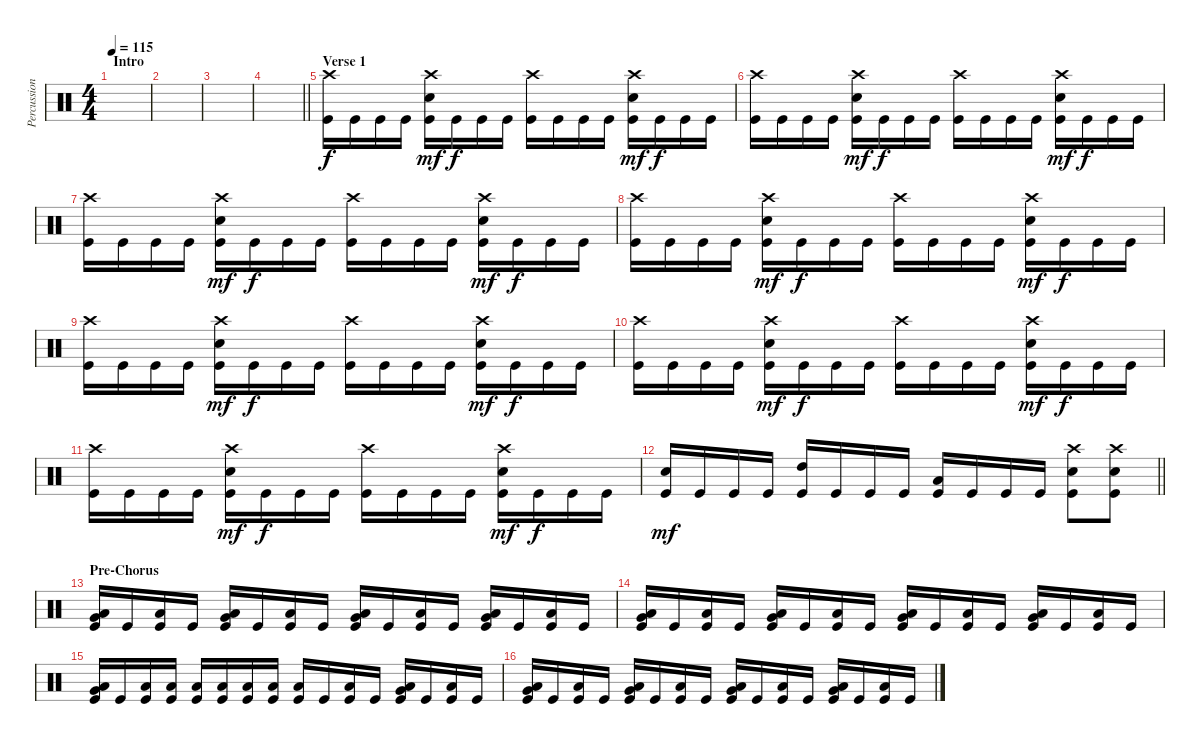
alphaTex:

\track ("Percussion" "Percussion") {instrument percussion}
\staff {score}
\articulation defaults
\ts (4 4)
\section ("" "Intro")
\tempo 115
\clef neutral
\ks c
|
|
|
\barLineRight lightlight
|
\section ("" "Verse 1")
("Crash high (hit)" "Kick (hit)").16 "Kick (hit)".16 "Kick (hit)".16 "Kick (hit)".16 ("Crash high (hit)" "Snare (hit) 2" "Kick (hit)").16{dy mf} "Kick (hit)".16{dy f} "Kick (hit)".16 "Kick (hit)".16 ("Crash high (hit)" "Kick (hit)").16 "Kick (hit)".16 "Kick (hit)".16 "Kick (hit)".16 ("Crash high (hit)" "Snare (hit) 2" "Kick (hit)").16{dy mf} "Kick (hit)".16{dy f} "Kick (hit)".16 "Kick (hit)".16 |
("Crash high (hit)" "Kick (hit)").16 "Kick (hit)".16 "Kick (hit)".16 "Kick (hit)".16 ("Crash high (hit)" "Snare (hit) 2" "Kick (hit)").16{dy mf} "Kick (hit)".16{dy f} "Kick (hit)".16 "Kick (hit)".16 ("Crash high (hit)" "Kick (hit)").16 "Kick (hit)".16 "Kick (hit)".16 "Kick (hit)".16 ("Crash high (hit)" "Snare (hit) 2" "Kick (hit)").16{dy mf} "Kick (hit)".16{dy f} "Kick (hit)".16 "Kick (hit)".16 |
("Crash high (hit)" "Kick (hit)").16 "Kick (hit)".16 "Kick (hit)".16 "Kick (hit)".16 ("Crash high (hit)" "Snare (hit) 2" "Kick (hit)").16{dy mf} "Kick (hit)".16{dy f} "Kick (hit)".16 "Kick (hit)".16 ("Crash high (hit)" "Kick (hit)").16 "Kick (hit)".16 "Kick (hit)".16 "Kick (hit)".16 ("Crash high (hit)" "Snare (hit) 2" "Kick (hit)").16{dy mf} "Kick (hit)".16{dy f} "Kick (hit)".16 "Kick (hit)".16 |
("Crash high (hit)" "Kick (hit)").16 "Kick (hit)".16 "Kick (hit)".16 "Kick (hit)".16 ("Crash high (hit)" "Snare (hit) 2" "Kick (hit)").16{dy mf} "Kick (hit)".16{dy f} "Kick (hit)".16 "Kick (hit)".16 ("Crash high (hit)" "Kick (hit)").16 "Kick (hit)".16 "Kick (hit)".16 "Kick (hit)".16 ("Crash high (hit)" "Snare (hit) 2" "Kick (hit)").16{dy mf} "Kick (hit)".16{dy f} "Kick (hit)".16 "Kick (hit)".16 |
("Crash high (hit)" "Kick (hit)").16 "Kick (hit)".16 "Kick (hit)".16 "Kick (hit)".16 ("Crash high (hit)" "Snare (hit) 2" "Kick (hit)").16{dy mf} "Kick (hit)".16{dy f} "Kick (hit)".16 "Kick (hit)".16 ("Crash high (hit)" "Kick (hit)").16 "Kick (hit)".16 "Kick (hit)".16 "Kick (hit)".16 ("Crash high (hit)" "Snare (hit) 2" "Kick (hit)").16{dy mf} "Kick (hit)".16{dy f} "Kick (hit)".16 "Kick (hit)".16 |
("Crash high (hit)" "Kick (hit)").16 "Kick (hit)".16 "Kick (hit)".16 "Kick (hit)".16 ("Crash high (hit)" "Snare (hit) 2" "Kick (hit)").16{dy mf} "Kick (hit)".16{dy f} "Kick (hit)".16 "Kick (hit)".16 ("Crash high (hit)" "Kick (hit)").16 "Kick (hit)".16 "Kick (hit)".16 "Kick (hit)".16 ("Crash high (hit)" "Snare (hit) 2" "Kick (hit)").16{dy mf} "Kick (hit)".16{dy f} "Kick (hit)".16 "Kick (hit)".16 |
("Crash high (hit)" "Kick (hit)").16 "Kick (hit)".16 "Kick (hit)".16 "Kick (hit)".16 ("Crash high (hit)" "Snare (hit) 2" "Kick (hit)").16{dy mf} "Kick (hit)".16{dy f} "Kick (hit)".16 "Kick (hit)".16 ("Crash high (hit)" "Kick (hit)").16 "Kick (hit)".16 "Kick (hit)".16 "Kick (hit)".16 ("Crash high (hit)" "Snare (hit) 2" "Kick (hit)").16{dy mf} "Kick (hit)".16{dy f} "Kick (hit)".16 "Kick (hit)".16 |
\barLineRight lightlight
("Snare (hit) 2" "Kick (hit)").16{dy mf} "Kick (hit)".16 "Kick (hit)".16 "Kick (hit)".16 ("High Tom (hit)" "Kick (hit)").16 "Kick (hit)".16 "Kick (hit)".16 "Kick (hit)".16 ("Low Tom (hit)" "Kick (hit)").16 "Kick (hit)".16 "Kick (hit)".16 "Kick (hit)".16 ("Kick (hit)" "Crash high (hit)" "Snare (hit) 2").8 ("Kick (hit)" "Crash high (hit)" "Snare (hit) 2").8 |
\section ("" "Pre-Chorus")
("Very Low Tom (hit)" "Low Floor Tom (hit)" "Kick (hit)").16 "Kick (hit)".16 ("Low Floor Tom (hit)" "Kick (hit)").16 "Kick (hit)".16 ("Very Low Tom (hit)" "Low Floor Tom (hit)" "Kick (hit)").16 "Kick (hit)".16 ("Low Floor Tom (hit)" "Kick (hit)").16 "Kick (hit)".16 ("Very Low Tom (hit)" "Low Floor Tom (hit)" "Kick (hit)").16 "Kick (hit)".16 ("Low Floor Tom (hit)" "Kick (hit)").16 "Kick (hit)".16 ("Very Low Tom (hit)" "Low Floor Tom (hit)" "Kick (hit)").16 "Kick (hit)".16 ("Low Floor Tom (hit)" "Kick (hit)").16 "Kick (hit)".16 |
("Very Low Tom (hit)" "Low Floor Tom (hit)" "Kick (hit)").16 "Kick (hit)".16 ("Low Floor Tom (hit)" "Kick (hit)").16 "Kick (hit)".16 ("Very Low Tom (hit)" "Low Floor Tom (hit)" "Kick (hit)").16 "Kick (hit)".16 ("Low Floor Tom (hit)" "Kick (hit)").16 "Kick (hit)".16 ("Very Low Tom (hit)" "Low Floor Tom (hit)" "Kick (hit)").16 "Kick (hit)".16 ("Low Floor Tom (hit)" "Kick (hit)").16 "Kick (hit)".16 ("Very Low Tom (hit)" "Low Floor Tom (hit)" "Kick (hit)").16 "Kick (hit)".16 ("Low Floor Tom (hit)" "Kick (hit)").16 "Kick (hit)".16 |
("Very Low Tom (hit)" "Low Floor Tom (hit)" "Kick (hit)").16 "Kick (hit)".16 ("Low Floor Tom (hit)" "Kick (hit)").16 ("Low Floor Tom (hit)" "Kick (hit)").16 ("Low Floor Tom (hit)" "Kick (hit)").16 ("Low Floor Tom (hit)" "Kick (hit)").16 ("Low Floor Tom (hit)" "Kick (hit)").16 ("Low Floor Tom (hit)" "Kick (hit)").16 ("Low Floor Tom (hit)" "Kick (hit)").16 "Kick (hit)".16 ("Low Floor Tom (hit)" "Kick (hit)").16 "Kick (hit)".16 ("Very Low Tom (hit)" "Low Floor Tom (hit)" "Kick (hit)").16 "Kick (hit)".16 ("Low Floor Tom (hit)" "Kick (hit)").16 "Kick (hit)".16 |
("Very Low Tom (hit)" "Low Floor Tom (hit)" "Kick (hit)").16 "Kick (hit)".16 ("Low Floor Tom (hit)" "Kick (hit)").16 "Kick (hit)".16 ("Very Low Tom (hit)" "Low Floor Tom (hit)" "Kick (hit)").16 "Kick (hit)".16 ("Low Floor Tom (hit)" "Kick (hit)").16 "Kick (hit)".16 ("Very Low Tom (hit)" "Low Floor Tom (hit)" "Kick (hit)").16 "Kick (hit)".16 ("Low Floor Tom (hit)" "Kick (hit)").16 "Kick (hit)".16 ("Very Low Tom (hit)" "Low Floor Tom (hit)" "Kick (hit)").16 "Kick (hit)".16 ("Low Floor Tom (hit)" "Kick (hit)").16 "Kick (hit)".16
